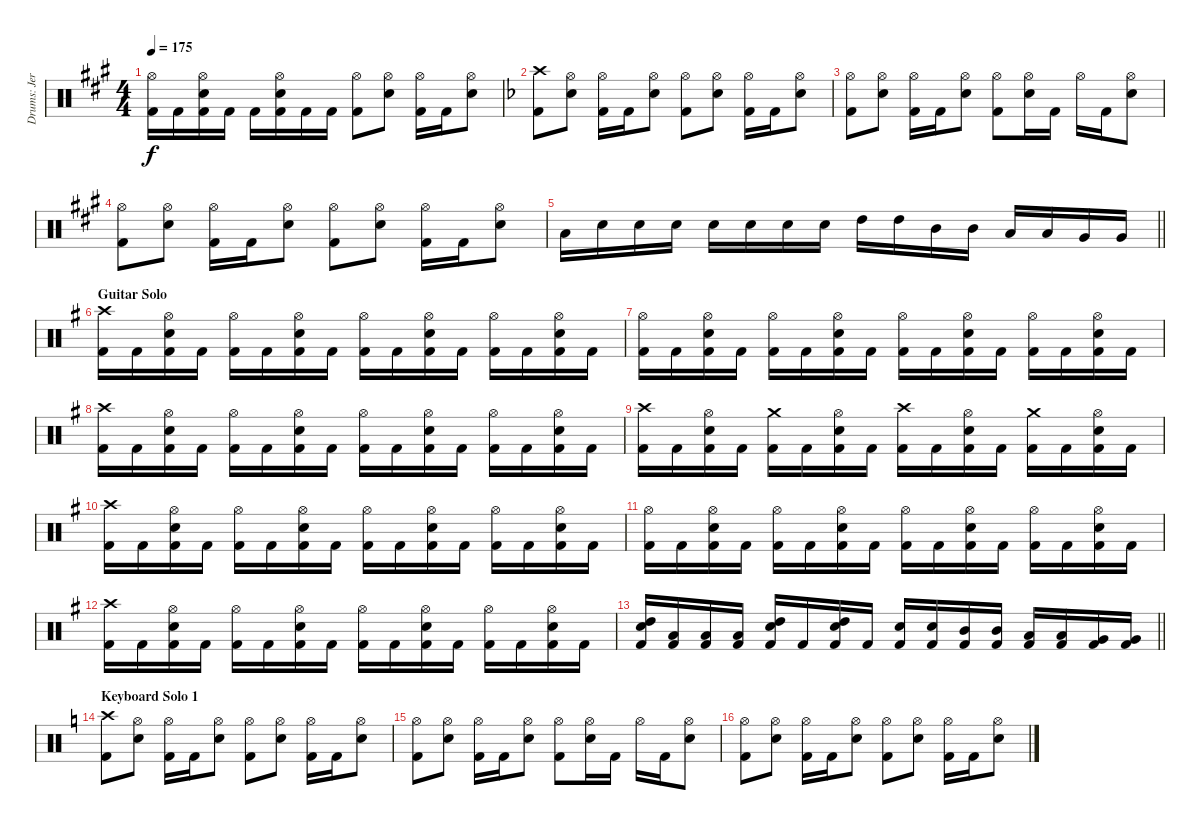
\track ("Drums: Jere Luokkamäki" "Drums: Jer") {instrument percussion}
\staff {score}
\articulation defaults
\ts (4 4)
\tempo 175
\clef neutral
\ks a
("Hi-Hat (open)" "Kick (hit) 2").16{dy f} "Kick (hit) 2".16 ("Hi-Hat (open)" "Electric Snare (hit)" "Kick (hit) 2").16 "Kick (hit) 2".16 "Kick (hit) 2".16 ("Hi-Hat (open)" "Electric Snare (hit)" "Kick (hit) 2").16 "Kick (hit) 2".16 "Kick (hit) 2".16 ("Hi-Hat (open)" "Kick (hit) 2").8 ("Hi-Hat (open)" "Electric Snare (hit)").8 ("Hi-Hat (open)" "Kick (hit) 2").16 "Kick (hit) 2".16 ("Hi-Hat (open)" "Electric Snare (hit)").8 |
\ks dminor
("Crash high (hit)" "Kick (hit) 2").8 ("Hi-Hat (open)" "Electric Snare (hit)").8 ("Hi-Hat (open)" "Kick (hit) 2").16 "Kick (hit) 2".16 ("Hi-Hat (open)" "Electric Snare (hit)").8 ("Hi-Hat (open)" "Kick (hit) 2").8 ("Hi-Hat (open)" "Electric Snare (hit)").8 ("Hi-Hat (open)" "Kick (hit) 2").16 "Kick (hit) 2".16 ("Hi-Hat (open)" "Electric Snare (hit)").8 |
("Hi-Hat (open)" "Kick (hit) 2").8 ("Hi-Hat (open)" "Electric Snare (hit)").8 ("Hi-Hat (open)" "Kick (hit) 2").16 "Kick (hit) 2".16 ("Hi-Hat (open)" "Electric Snare (hit)").8 ("Hi-Hat (open)" "Kick (hit) 2").8 ("Hi-Hat (open)" "Electric Snare (hit)").16 "Kick (hit) 2".16 "Hi-Hat (open)".16 "Kick (hit) 2".16 ("Hi-Hat (open)" "Electric Snare (hit)").8 |
\ks a
("Hi-Hat (open)" "Kick (hit) 2").8 ("Hi-Hat (open)" "Electric Snare (hit)").8 ("Hi-Hat (open)" "Kick (hit) 2").16 "Kick (hit) 2".16 ("Hi-Hat (open)" "Electric Snare (hit)").8 ("Hi-Hat (open)" "Kick (hit) 2").8 ("Hi-Hat (open)" "Electric Snare (hit)").8 ("Hi-Hat (open)" "Kick (hit) 2").16 "Kick (hit) 2".16 ("Hi-Hat (open)" "Electric Snare (hit)").8 |
\barLineRight lightlight "Low Tom (hit)".16 "Electric Snare (hit)".16 "Electric Snare (hit)".16 "Electric Snare (hit)".16 "Electric Snare (hit)".16 "Electric Snare (hit)".16 "Electric Snare (hit)".16 "Electric Snare (hit)".16 "High Tom (hit)".16 "High Tom (hit)".16 "Mid Tom (hit)".16 "Mid Tom (hit)".16 "Low Tom (hit)".16 "Low Tom (hit)".16 "Very Low Tom (hit)".16 "Very Low Tom (hit)".16
|
\section ("" "Guitar Solo")
\ks eminor
("Crash high (hit)" "Kick (hit) 2").16 "Kick (hit) 2".16 ("Hi-Hat (open)" "Electric Snare (hit)" "Kick (hit) 2").16 "Kick (hit) 2".16 ("Hi-Hat (open)" "Kick (hit) 2").16 "Kick (hit) 2".16 ("Hi-Hat (open)" "Electric Snare (hit)" "Kick (hit) 2").16 "Kick (hit) 2".16 ("Hi-Hat (open)" "Kick (hit) 2").16 "Kick (hit) 2".16 ("Hi-Hat (open)" "Electric Snare (hit)" "Kick (hit) 2").16 "Kick (hit) 2".16 ("Hi-Hat (open)" "Kick (hit) 2").16 "Kick (hit) 2".16 ("Hi-Hat (open)" "Electric Snare (hit)" "Kick (hit) 2").16 "Kick (hit) 2".16 |
("Hi-Hat (open)" "Kick (hit) 2").16 "Kick (hit) 2".16 ("Hi-Hat (open)" "Electric Snare (hit)" "Kick (hit) 2").16 "Kick (hit) 2".16 ("Hi-Hat (open)" "Kick (hit) 2").16 "Kick (hit) 2".16 ("Hi-Hat (open)" "Electric Snare (hit)" "Kick (hit) 2").16 "Kick (hit) 2".16 ("Hi-Hat (open)" "Kick (hit) 2").16 "Kick (hit) 2".16 ("Hi-Hat (open)" "Electric Snare (hit)" "Kick (hit) 2").16 "Kick (hit) 2".16 ("Hi-Hat (open)" "Kick (hit) 2").16 "Kick (hit) 2".16 ("Hi-Hat (open)" "Electric Snare (hit)" "Kick (hit) 2").16 "Kick (hit) 2".16 |
("Crash high (hit)" "Kick (hit) 2").16 "Kick (hit) 2".16 ("Hi-Hat (open)" "Electric Snare (hit)" "Kick (hit) 2").16 "Kick (hit) 2".16 ("Hi-Hat (open)" "Kick (hit) 2").16 "Kick (hit) 2".16 ("Hi-Hat (open)" "Electric Snare (hit)" "Kick (hit) 2").16 "Kick (hit) 2".16 ("Hi-Hat (open)" "Kick (hit) 2").16 "Kick (hit) 2".16 ("Hi-Hat (open)" "Electric Snare (hit)" "Kick (hit) 2").16 "Kick (hit) 2".16 ("Hi-Hat (open)" "Kick (hit) 2").16 "Kick (hit) 2".16 ("Hi-Hat (open)" "Electric Snare (hit)" "Kick (hit) 2").16 "Kick (hit) 2".16 |
("Crash high (hit)" "Kick (hit) 2").16 "Kick (hit) 2".16 ("Hi-Hat (open)" "Electric Snare (hit)" "Kick (hit) 2").16 "Kick (hit) 2".16 ("Crash medium (hit)" "Kick (hit) 2").16 "Kick (hit) 2".16 ("Hi-Hat (open)" "Electric Snare (hit)" "Kick (hit) 2").16 "Kick (hit) 2".16 ("Crash high (hit)" "Kick (hit) 2").16 "Kick (hit) 2".16 ("Hi-Hat (open)" "Electric Snare (hit)" "Kick (hit) 2").16 "Kick (hit) 2".16 ("Crash medium (hit)" "Kick (hit) 2").16 "Kick (hit) 2".16 ("Hi-Hat (open)" "Electric Snare (hit)" "Kick (hit) 2").16 "Kick (hit) 2".16 |
("Crash high (hit)" "Kick (hit) 2").16 "Kick (hit) 2".16 ("Hi-Hat (open)" "Electric Snare (hit)" "Kick (hit) 2").16 "Kick (hit) 2".16 ("Hi-Hat (open)" "Kick (hit) 2").16 "Kick (hit) 2".16 ("Hi-Hat (open)" "Electric Snare (hit)" "Kick (hit) 2").16 "Kick (hit) 2".16 ("Hi-Hat (open)" "Kick (hit) 2").16 "Kick (hit) 2".16 ("Hi-Hat (open)" "Electric Snare (hit)" "Kick (hit) 2").16 "Kick (hit) 2".16 ("Hi-Hat (open)" "Kick (hit) 2").16 "Kick (hit) 2".16 ("Hi-Hat (open)" "Electric Snare (hit)" "Kick (hit) 2").16 "Kick (hit) 2".16 |
("Hi-Hat (open)" "Kick (hit) 2").16 "Kick (hit) 2".16 ("Hi-Hat (open)" "Electric Snare (hit)" "Kick (hit) 2").16 "Kick (hit) 2".16 ("Hi-Hat (open)" "Kick (hit) 2").16 "Kick (hit) 2".16 ("Hi-Hat (open)" "Electric Snare (hit)" "Kick (hit) 2").16 "Kick (hit) 2".16 ("Hi-Hat (open)" "Kick (hit) 2").16 "Kick (hit) 2".16 ("Hi-Hat (open)" "Electric Snare (hit)" "Kick (hit) 2").16 "Kick (hit) 2".16 ("Hi-Hat (open)" "Kick (hit) 2").16 "Kick (hit) 2".16 ("Hi-Hat (open)" "Electric Snare (hit)" "Kick (hit) 2").16 "Kick (hit) 2".16 |
("Crash high (hit)" "Kick (hit) 2").16 "Kick (hit) 2".16 ("Hi-Hat (open)" "Electric Snare (hit)" "Kick (hit) 2").16 "Kick (hit) 2".16 ("Hi-Hat (open)" "Kick (hit) 2").16 "Kick (hit) 2".16 ("Hi-Hat (open)" "Electric Snare (hit)" "Kick (hit) 2").16 "Kick (hit) 2".16 ("Hi-Hat (open)" "Kick (hit) 2").16 "Kick (hit) 2".16 ("Hi-Hat (open)" "Electric Snare (hit)" "Kick (hit) 2").16 "Kick (hit) 2".16 ("Hi-Hat (open)" "Kick (hit) 2").16 "Kick (hit) 2".16 ("Hi-Hat (open)" "Electric Snare (hit)" "Kick (hit) 2").16 "Kick (hit) 2".16 |
\barLineRight lightlight
("High Tom (hit)" "Electric Snare (hit)" "Kick (hit) 2").16 ("Low Tom (hit)" "Kick (hit) 2").16 ("Low Tom (hit)" "Kick (hit) 2").16 ("Low Tom (hit)" "Kick (hit) 2").16 ("High Tom (hit)" "Electric Snare (hit)" "Kick (hit) 2").16 "Kick (hit) 2".16 ("High Tom (hit)" "Electric Snare (hit)" "Kick (hit) 2").16 "Kick (hit) 2".16 ("Electric Snare (hit)" "Kick (hit) 2").16 ("Electric Snare (hit)" "Kick (hit) 2").16 ("Mid Tom (hit)" "Kick (hit) 2").16 ("Mid Tom (hit)" "Kick (hit) 2").16 ("Low Tom (hit)" "Kick (hit) 2").16 ("Low Tom (hit)" "Kick (hit) 2").16 ("Very Low Tom (hit)" "Kick (hit) 2").16 ("Very Low Tom (hit)" "Kick (hit) 2").16 |
\section ("" "Keyboard Solo 1")
\ks aminor
("Crash high (hit)" "Kick (hit) 2").8 ("Hi-Hat (open)" "Electric Snare (hit)").8 ("Hi-Hat (open)" "Kick (hit) 2").16 "Kick (hit) 2".16 ("Hi-Hat (open)" "Electric Snare (hit)").8 ("Hi-Hat (open)" "Kick (hit) 2").8 ("Hi-Hat (open)" "Electric Snare (hit)").8 ("Hi-Hat (open)" "Kick (hit) 2").16 "Kick (hit) 2".16 ("Hi-Hat (open)" "Electric Snare (hit)").8 |
("Hi-Hat (open)" "Kick (hit) 2").8 ("Hi-Hat (open)" "Electric Snare (hit)").8 ("Hi-Hat (open)" "Kick (hit) 2").16 "Kick (hit) 2".16 ("Hi-Hat (open)" "Electric Snare (hit)").8 ("Hi-Hat (open)" "Kick (hit) 2").8 ("Hi-Hat (open)" "Electric Snare (hit)").16 "Kick (hit) 2".16 "Hi-Hat (open)".16 "Kick (hit) 2".16 ("Hi-Hat (open)" "Electric Snare (hit)").8 |
("Hi-Hat (open)" "Kick (hit) 2").8 ("Hi-Hat (open)" "Electric Snare (hit)").8 ("Hi-Hat (open)" "Kick (hit) 2").16 "Kick (hit) 2".16 ("Hi-Hat (open)" "Electric Snare (hit)").8 ("Hi-Hat (open)" "Kick (hit) 2").8 ("Hi-Hat (open)" "Electric Snare (hit)").8 ("Hi-Hat (open)" "Kick (hit) 2").16 "Kick (hit) 2".16 ("Hi-Hat (open)" "Electric Snare (hit)").8
